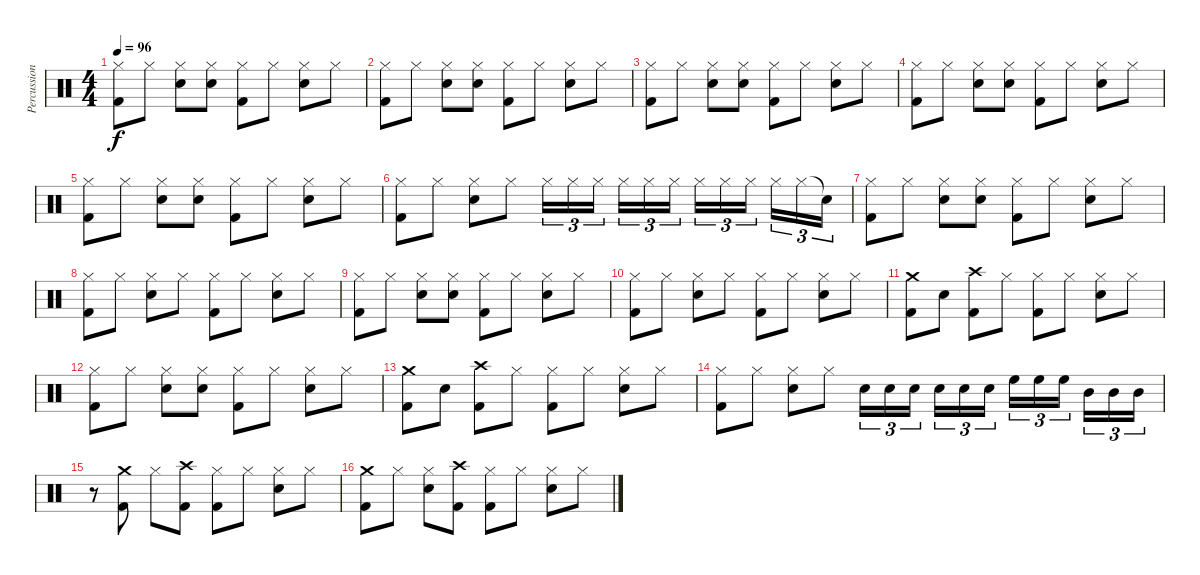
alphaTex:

\track ("Percussion" "Percussion") {instrument percussion}
\staff {score}
\articulation defaults
\ts (4 4)
\tempo 96
\clef neutral
\ks c
("Hi-Hat (closed)" "Kick (hit) 2").8{dy f} "Hi-Hat (closed)".8 ("Hi-Hat (closed)" "Snare (hit) 2").8 ("Hi-Hat (closed)" "Snare (hit) 2").8 ("Hi-Hat (closed)" "Kick (hit) 2").8 "Hi-Hat (closed)".8 ("Hi-Hat (closed)" "Snare (hit) 2").8 "Hi-Hat (closed)".8 |
("Hi-Hat (closed)" "Kick (hit) 2").8 "Hi-Hat (closed)".8 ("Hi-Hat (closed)" "Snare (hit) 2").8 ("Hi-Hat (closed)" "Snare (hit) 2").8 ("Hi-Hat (closed)" "Kick (hit) 2").8 "Hi-Hat (closed)".8 ("Hi-Hat (closed)" "Snare (hit) 2").8 "Hi-Hat (closed)".8 |
("Hi-Hat (closed)" "Kick (hit) 2").8 "Hi-Hat (closed)".8 ("Hi-Hat (closed)" "Snare (hit) 2").8 ("Hi-Hat (closed)" "Snare (hit) 2").8 ("Hi-Hat (closed)" "Kick (hit) 2").8 "Hi-Hat (closed)".8 ("Hi-Hat (closed)" "Snare (hit) 2").8 "Hi-Hat (closed)".8 |
("Hi-Hat (closed)" "Kick (hit) 2").8 "Hi-Hat (closed)".8 ("Hi-Hat (closed)" "Snare (hit) 2").8 ("Hi-Hat (closed)" "Snare (hit) 2").8 ("Hi-Hat (closed)" "Kick (hit) 2").8 "Hi-Hat (closed)".8 ("Hi-Hat (closed)" "Snare (hit) 2").8 "Hi-Hat (closed)".8 |
("Hi-Hat (closed)" "Kick (hit) 2").8 "Hi-Hat (closed)".8 ("Hi-Hat (closed)" "Snare (hit) 2").8 ("Hi-Hat (closed)" "Snare (hit) 2").8 ("Hi-Hat (closed)" "Kick (hit) 2").8 "Hi-Hat (closed)".8 ("Hi-Hat (closed)" "Snare (hit) 2").8 "Hi-Hat (closed)".8 |
("Hi-Hat (closed)" "Kick (hit) 2").8 "Hi-Hat (closed)".8 ("Hi-Hat (closed)" "Snare (hit) 2").8 "Hi-Hat (closed)".8 "Hi-Hat (closed)".16{tu (3 2)} "Hi-Hat (closed)".16{tu (3 2)} "Hi-Hat (closed)".16{tu (3 2)} "Hi-Hat (closed)".16{tu (3 2)} "Hi-Hat (closed)".16{tu (3 2)} "Hi-Hat (closed)".16{tu (3 2)} "Hi-Hat (closed)".16{tu (3 2)} "Hi-Hat (closed)".16{tu (3 2)} "Hi-Hat (closed)".16{tu (3 2)} "Hi-Hat (closed)".16{tu (3 2)} "Hi-Hat (closed)".16{tu (3 2)} "Snare (hit)"{t}.16{tu (3 2)} |
("Hi-Hat (closed)" "Kick (hit) 2").8 "Hi-Hat (closed)".8 ("Hi-Hat (closed)" "Snare (hit) 2").8 ("Hi-Hat (closed)" "Snare (hit) 2").8 ("Hi-Hat (closed)" "Kick (hit) 2").8 "Hi-Hat (closed)".8 ("Hi-Hat (closed)" "Snare (hit) 2").8 "Hi-Hat (closed)".8 |
("Hi-Hat (closed)" "Kick (hit) 2").8 "Hi-Hat (closed)".8 ("Hi-Hat (closed)" "Snare (hit) 2").8 "Hi-Hat (closed)".8 ("Hi-Hat (closed)" "Kick (hit) 2").8 "Hi-Hat (closed)".8 ("Hi-Hat (closed)" "Snare (hit) 2").8 "Hi-Hat (closed)".8 |
("Hi-Hat (closed)" "Kick (hit) 2").8 "Hi-Hat (closed)".8 ("Hi-Hat (closed)" "Snare (hit) 2").8 ("Hi-Hat (closed)" "Snare (hit) 2").8 ("Hi-Hat (closed)" "Kick (hit) 2").8 "Hi-Hat (closed)".8 ("Hi-Hat (closed)" "Snare (hit) 2").8 "Hi-Hat (closed)".8 |
("Hi-Hat (closed)" "Kick (hit) 2").8 "Hi-Hat (closed)".8 ("Hi-Hat (closed)" "Snare (hit) 2").8 "Hi-Hat (closed)".8 ("Hi-Hat (closed)" "Kick (hit) 2").8 "Hi-Hat (closed)".8 ("Hi-Hat (closed)" "Snare (hit) 2").8 "Hi-Hat (closed)".8 |
("Crash medium (hit)" "Kick (hit) 2").8 "Snare (hit) 2".8 ("Crash high (hit)" "Kick (hit) 2").8 "Hi-Hat (closed)".8 ("Hi-Hat (closed)" "Kick (hit) 2").8 "Hi-Hat (closed)".8 ("Hi-Hat (closed)" "Snare (hit) 2").8 "Hi-Hat (closed)".8 |
("Hi-Hat (closed)" "Kick (hit) 2").8 "Hi-Hat (closed)".8 ("Hi-Hat (closed)" "Snare (hit) 2").8 ("Hi-Hat (closed)" "Snare (hit) 2").8 ("Hi-Hat (closed)" "Kick (hit) 2").8 "Hi-Hat (closed)".8 ("Hi-Hat (closed)" "Snare (hit) 2").8 "Hi-Hat (closed)".8 |
("Crash medium (hit)" "Kick (hit) 2").8 "Snare (hit) 2".8 ("Crash high (hit)" "Kick (hit) 2").8 "Hi-Hat (closed)".8 ("Hi-Hat (closed)" "Kick (hit) 2").8 "Hi-Hat (closed)".8 ("Hi-Hat (closed)" "Snare (hit) 2").8 "Hi-Hat (closed)".8 |
("Hi-Hat (closed)" "Kick (hit) 2").8 "Hi-Hat (closed)".8 ("Hi-Hat (closed)" "Snare (hit) 2").8 "Hi-Hat (closed)".8 "Snare (hit) 2".16{tu (3 2)} "Snare (hit) 2".16{tu (3 2)} "Snare (hit) 2".16{tu (3 2)} "Snare (hit) 2".16{tu (3 2)} "Snare (hit) 2".16{tu (3 2)} "Snare (hit) 2".16{tu (3 2)} "High Floor Tom (hit)".16{tu (3 2)} "High Floor Tom (hit)".16{tu (3 2)} "High Floor Tom (hit)".16{tu (3 2)} "Mid Tom (hit)".16{tu (3 2)} "Mid Tom (hit)".16{tu (3 2)} "Mid Tom (hit)".16{tu (3 2)} |
r.8 ("Crash medium (hit)" "Kick (hit) 2").8 "Hi-Hat (closed)".8 ("Crash high (hit)" "Kick (hit) 2").8 ("Hi-Hat (closed)" "Kick (hit) 2").8 "Hi-Hat (closed)".8 ("Hi-Hat (closed)" "Snare (hit) 2").8 "Hi-Hat (closed)".8 |
("Crash medium (hit)" "Kick (hit) 2").8 "Hi-Hat (closed)".8 ("Hi-Hat (closed)" "Snare (hit) 2").8 ("Crash high (hit)" "Kick (hit) 2").8 ("Hi-Hat (closed)" "Kick (hit) 2").8 "Hi-Hat (closed)".8 ("Hi-Hat (closed)" "Snare (hit) 2").8 "Hi-Hat (closed)".8
